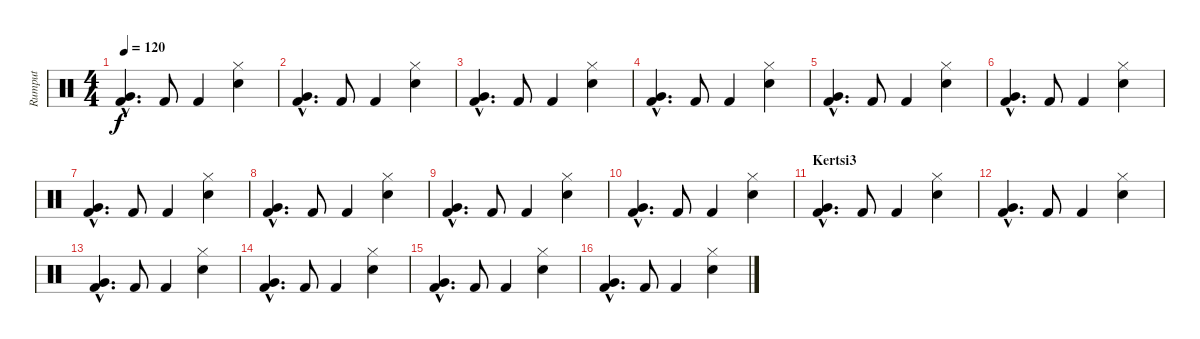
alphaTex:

\track ("Rumput" "Rumput") {instrument percussion}
\staff {score}
\articulation defaults
\ts (4 4)
\tempo 120
\clef neutral
\ks c
("Very Low Tom (hit)"{hac} "Kick (hit) 2"{hac}).4{d dy f} "Kick (hit) 2".8 "Kick (hit) 2".4 ("Hi-Hat (closed)" "Snare (hit) 2").4 |
("Very Low Tom (hit)"{hac} "Kick (hit) 2"{hac}).4{d} "Kick (hit) 2".8 "Kick (hit) 2".4 ("Hi-Hat (closed)" "Snare (hit) 2").4 |
("Very Low Tom (hit)"{hac} "Kick (hit) 2"{hac}).4{d} "Kick (hit) 2".8 "Kick (hit) 2".4 ("Hi-Hat (closed)" "Snare (hit) 2").4 |
("Very Low Tom (hit)"{hac} "Kick (hit) 2"{hac}).4{d} "Kick (hit) 2".8 "Kick (hit) 2".4 ("Hi-Hat (closed)" "Snare (hit) 2").4 |
("Very Low Tom (hit)"{hac} "Kick (hit) 2"{hac}).4{d} "Kick (hit) 2".8 "Kick (hit) 2".4 ("Hi-Hat (closed)" "Snare (hit) 2").4 |
("Very Low Tom (hit)"{hac} "Kick (hit) 2"{hac}).4{d} "Kick (hit) 2".8 "Kick (hit) 2".4 ("Hi-Hat (closed)" "Snare (hit) 2").4 |
("Very Low Tom (hit)"{hac} "Kick (hit) 2"{hac}).4{d} "Kick (hit) 2".8 "Kick (hit) 2".4 ("Hi-Hat (closed)" "Snare (hit) 2").4 |
("Very Low Tom (hit)"{hac} "Kick (hit) 2"{hac}).4{d} "Kick (hit) 2".8 "Kick (hit) 2".4 ("Hi-Hat (closed)" "Snare (hit) 2").4 |
("Very Low Tom (hit)"{hac} "Kick (hit) 2"{hac}).4{d} "Kick (hit) 2".8 "Kick (hit) 2".4 ("Hi-Hat (closed)" "Snare (hit) 2").4 |
("Very Low Tom (hit)"{hac} "Kick (hit) 2"{hac}).4{d} "Kick (hit) 2".8 "Kick (hit) 2".4 ("Hi-Hat (closed)" "Snare (hit) 2").4 |
\section ("" "Kertsi3")
("Very Low Tom (hit)"{hac} "Kick (hit) 2"{hac}).4{d} "Kick (hit) 2".8 "Kick (hit) 2".4 ("Hi-Hat (closed)" "Snare (hit) 2").4 |
("Very Low Tom (hit)"{hac} "Kick (hit) 2"{hac}).4{d} "Kick (hit) 2".8 "Kick (hit) 2".4 ("Hi-Hat (closed)" "Snare (hit) 2").4 |
("Very Low Tom (hit)"{hac} "Kick (hit) 2"{hac}).4{d} "Kick (hit) 2".8 "Kick (hit) 2".4 ("Hi-Hat (closed)" "Snare (hit) 2").4 |
("Very Low Tom (hit)"{hac} "Kick (hit) 2"{hac}).4{d} "Kick (hit) 2".8 "Kick (hit) 2".4 ("Hi-Hat (closed)" "Snare (hit) 2").4 |
("Very Low Tom (hit)"{hac} "Kick (hit) 2"{hac}).4{d} "Kick (hit) 2".8 "Kick (hit) 2".4 ("Hi-Hat (closed)" "Snare (hit) 2").4 |
("Very Low Tom (hit)"{hac} "Kick (hit) 2"{hac}).4{d} "Kick (hit) 2".8 "Kick (hit) 2".4 ("Hi-Hat (closed)" "Snare (hit) 2").4
